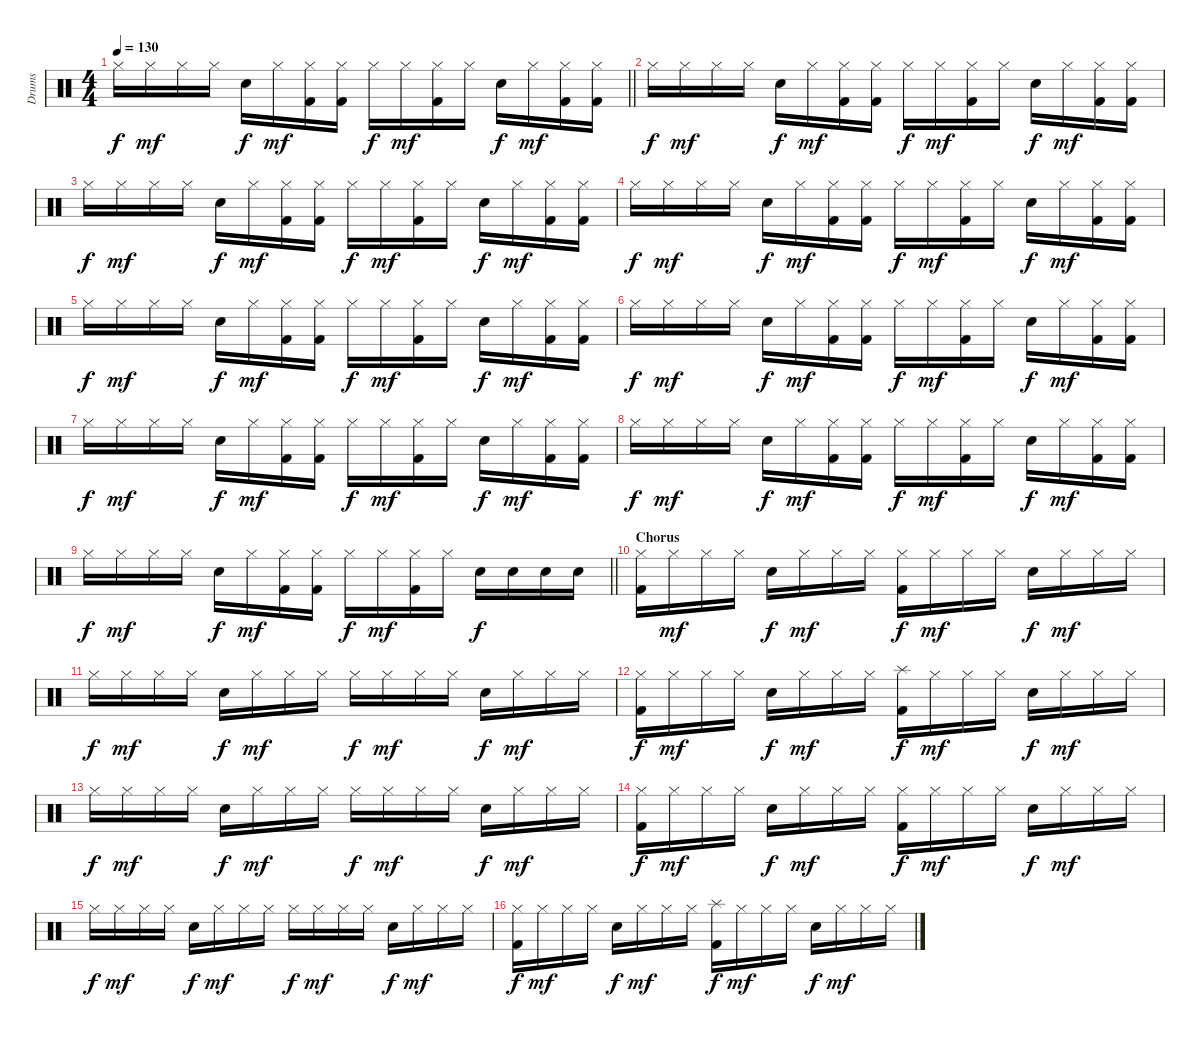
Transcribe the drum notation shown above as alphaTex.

\track ("Drums" "Drums") {instrument percussion}
\staff {score}
\articulation defaults
\ts (4 4)
\tempo 130
\clef neutral
\barLineRight lightlight
\ks c "Hi-Hat (closed)".16{dy f} "Hi-Hat (closed)".16{dy mf} "Hi-Hat (closed)".16 "Hi-Hat (closed)".16 "Snare (hit) 2".16{dy f} "Hi-Hat (closed)".16{dy mf}
("Hi-Hat (closed)" "Kick (hit) 2").16 ("Hi-Hat (closed)" "Kick (hit) 2").16 "Hi-Hat (closed)".16{dy f} "Hi-Hat (closed)".16{dy mf} ("Hi-Hat (closed)" "Kick (hit) 2").16 "Hi-Hat (closed)".16 "Snare (hit) 2".16{dy f} "Hi-Hat (closed)".16{dy mf} ("Hi-Hat (closed)" "Kick (hit) 2").16 ("Hi-Hat (closed)" "Kick (hit) 2").16 |
"Hi-Hat (closed)".16{dy f} "Hi-Hat (closed)".16{dy mf} "Hi-Hat (closed)".16 "Hi-Hat (closed)".16 "Snare (hit) 2".16{dy f} "Hi-Hat (closed)".16{dy mf} ("Hi-Hat (closed)" "Kick (hit) 2").16 ("Hi-Hat (closed)" "Kick (hit) 2").16 "Hi-Hat (closed)".16{dy f} "Hi-Hat (closed)".16{dy mf} ("Hi-Hat (closed)" "Kick (hit) 2").16 "Hi-Hat (closed)".16 "Snare (hit) 2".16{dy f} "Hi-Hat (closed)".16{dy mf} ("Hi-Hat (closed)" "Kick (hit) 2").16 ("Hi-Hat (closed)" "Kick (hit) 2").16 |
"Hi-Hat (closed)".16{dy f} "Hi-Hat (closed)".16{dy mf} "Hi-Hat (closed)".16 "Hi-Hat (closed)".16 "Snare (hit) 2".16{dy f} "Hi-Hat (closed)".16{dy mf} ("Hi-Hat (closed)" "Kick (hit) 2").16 ("Hi-Hat (closed)" "Kick (hit) 2").16 "Hi-Hat (closed)".16{dy f} "Hi-Hat (closed)".16{dy mf} ("Hi-Hat (closed)" "Kick (hit) 2").16 "Hi-Hat (closed)".16 "Snare (hit) 2".16{dy f} "Hi-Hat (closed)".16{dy mf} ("Hi-Hat (closed)" "Kick (hit) 2").16 ("Hi-Hat (closed)" "Kick (hit) 2").16 |
"Hi-Hat (closed)".16{dy f} "Hi-Hat (closed)".16{dy mf} "Hi-Hat (closed)".16 "Hi-Hat (closed)".16 "Snare (hit) 2".16{dy f} "Hi-Hat (closed)".16{dy mf} ("Hi-Hat (closed)" "Kick (hit) 2").16 ("Hi-Hat (closed)" "Kick (hit) 2").16 "Hi-Hat (closed)".16{dy f} "Hi-Hat (closed)".16{dy mf} ("Hi-Hat (closed)" "Kick (hit) 2").16 "Hi-Hat (closed)".16 "Snare (hit) 2".16{dy f} "Hi-Hat (closed)".16{dy mf} ("Hi-Hat (closed)" "Kick (hit) 2").16 ("Hi-Hat (closed)" "Kick (hit) 2").16 |
"Hi-Hat (closed)".16{dy f} "Hi-Hat (closed)".16{dy mf} "Hi-Hat (closed)".16 "Hi-Hat (closed)".16 "Snare (hit) 2".16{dy f} "Hi-Hat (closed)".16{dy mf} ("Hi-Hat (closed)" "Kick (hit) 2").16 ("Hi-Hat (closed)" "Kick (hit) 2").16 "Hi-Hat (closed)".16{dy f} "Hi-Hat (closed)".16{dy mf} ("Hi-Hat (closed)" "Kick (hit) 2").16 "Hi-Hat (closed)".16 "Snare (hit) 2".16{dy f} "Hi-Hat (closed)".16{dy mf} ("Hi-Hat (closed)" "Kick (hit) 2").16 ("Hi-Hat (closed)" "Kick (hit) 2").16 |
"Hi-Hat (closed)".16{dy f} "Hi-Hat (closed)".16{dy mf} "Hi-Hat (closed)".16 "Hi-Hat (closed)".16 "Snare (hit) 2".16{dy f} "Hi-Hat (closed)".16{dy mf} ("Hi-Hat (closed)" "Kick (hit) 2").16 ("Hi-Hat (closed)" "Kick (hit) 2").16 "Hi-Hat (closed)".16{dy f} "Hi-Hat (closed)".16{dy mf} ("Hi-Hat (closed)" "Kick (hit) 2").16 "Hi-Hat (closed)".16 "Snare (hit) 2".16{dy f} "Hi-Hat (closed)".16{dy mf} ("Hi-Hat (closed)" "Kick (hit) 2").16 ("Hi-Hat (closed)" "Kick (hit) 2").16 |
"Hi-Hat (closed)".16{dy f} "Hi-Hat (closed)".16{dy mf} "Hi-Hat (closed)".16 "Hi-Hat (closed)".16 "Snare (hit) 2".16{dy f} "Hi-Hat (closed)".16{dy mf} ("Hi-Hat (closed)" "Kick (hit) 2").16 ("Hi-Hat (closed)" "Kick (hit) 2").16 "Hi-Hat (closed)".16{dy f} "Hi-Hat (closed)".16{dy mf} ("Hi-Hat (closed)" "Kick (hit) 2").16 "Hi-Hat (closed)".16 "Snare (hit) 2".16{dy f} "Hi-Hat (closed)".16{dy mf} ("Hi-Hat (closed)" "Kick (hit) 2").16 ("Hi-Hat (closed)" "Kick (hit) 2").16 |
"Hi-Hat (closed)".16{dy f} "Hi-Hat (closed)".16{dy mf} "Hi-Hat (closed)".16 "Hi-Hat (closed)".16 "Snare (hit) 2".16{dy f} "Hi-Hat (closed)".16{dy mf} ("Hi-Hat (closed)" "Kick (hit) 2").16 ("Hi-Hat (closed)" "Kick (hit) 2").16 "Hi-Hat (closed)".16{dy f} "Hi-Hat (closed)".16{dy mf} ("Hi-Hat (closed)" "Kick (hit) 2").16 "Hi-Hat (closed)".16 "Snare (hit) 2".16{dy f} "Hi-Hat (closed)".16{dy mf} ("Hi-Hat (closed)" "Kick (hit) 2").16 ("Hi-Hat (closed)" "Kick (hit) 2").16 |
\barLineRight lightlight "Hi-Hat (closed)".16{dy f} "Hi-Hat (closed)".16{dy mf} "Hi-Hat (closed)".16 "Hi-Hat (closed)".16 "Snare (hit) 2".16{dy f} "Hi-Hat (closed)".16{dy mf}
("Hi-Hat (closed)" "Kick (hit) 2").16 ("Hi-Hat (closed)" "Kick (hit) 2").16 "Hi-Hat (closed)".16{dy f} "Hi-Hat (closed)".16{dy mf} ("Hi-Hat (closed)" "Kick (hit) 2").16 "Hi-Hat (closed)".16 "Snare (hit) 2".16{dy f} "Snare (hit) 2".16 "Snare (hit) 2".16 "Snare (hit) 2".16 |
\section ("" "Chorus")
("Hi-Hat (closed)" "Kick (hit) 2").16 "Hi-Hat (closed)".16{dy mf} "Hi-Hat (closed)".16 "Hi-Hat (closed)".16 "Snare (hit) 2".16{dy f} "Hi-Hat (closed)".16{dy mf} "Hi-Hat (closed)".16 "Hi-Hat (closed)".16 ("Hi-Hat (closed)" "Kick (hit) 2").16{dy f} "Hi-Hat (closed)".16{dy mf} "Hi-Hat (closed)".16 "Hi-Hat (closed)".16 "Snare (hit) 2".16{dy f} "Hi-Hat (closed)".16{dy mf} "Hi-Hat (closed)".16 "Hi-Hat (closed)".16 |
"Hi-Hat (closed)".16{dy f} "Hi-Hat (closed)".16{dy mf} "Hi-Hat (closed)".16 "Hi-Hat (closed)".16 "Snare (hit) 2".16{dy f} "Hi-Hat (closed)".16{dy mf} "Hi-Hat (closed)".16 "Hi-Hat (closed)".16 "Hi-Hat (closed)".16{dy f} "Hi-Hat (closed)".16{dy mf} "Hi-Hat (closed)".16 "Hi-Hat (closed)".16 "Snare (hit) 2".16{dy f} "Hi-Hat (closed)".16{dy mf} "Hi-Hat (closed)".16 "Hi-Hat (closed)".16 |
("Hi-Hat (closed)" "Kick (hit) 2").16{dy f} "Hi-Hat (closed)".16{dy mf} "Hi-Hat (closed)".16 "Hi-Hat (closed)".16 "Snare (hit) 2".16{dy f} "Hi-Hat (closed)".16{dy mf} "Hi-Hat (closed)".16 "Hi-Hat (closed)".16 ("Splash (hit)" "Kick (hit) 2").16{dy f} "Hi-Hat (closed)".16{dy mf} "Hi-Hat (closed)".16 "Hi-Hat (closed)".16 "Snare (hit) 2".16{dy f} "Hi-Hat (closed)".16{dy mf} "Hi-Hat (closed)".16 "Hi-Hat (closed)".16 |
"Hi-Hat (closed)".16{dy f} "Hi-Hat (closed)".16{dy mf} "Hi-Hat (closed)".16 "Hi-Hat (closed)".16 "Snare (hit) 2".16{dy f} "Hi-Hat (closed)".16{dy mf} "Hi-Hat (closed)".16 "Hi-Hat (closed)".16 "Hi-Hat (closed)".16{dy f} "Hi-Hat (closed)".16{dy mf} "Hi-Hat (closed)".16 "Hi-Hat (closed)".16 "Snare (hit) 2".16{dy f} "Hi-Hat (closed)".16{dy mf} "Hi-Hat (closed)".16 "Hi-Hat (closed)".16 |
("Hi-Hat (closed)" "Kick (hit) 2").16{dy f} "Hi-Hat (closed)".16{dy mf} "Hi-Hat (closed)".16 "Hi-Hat (closed)".16 "Snare (hit) 2".16{dy f} "Hi-Hat (closed)".16{dy mf} "Hi-Hat (closed)".16 "Hi-Hat (closed)".16 ("Hi-Hat (closed)" "Kick (hit) 2").16{dy f} "Hi-Hat (closed)".16{dy mf} "Hi-Hat (closed)".16 "Hi-Hat (closed)".16 "Snare (hit) 2".16{dy f} "Hi-Hat (closed)".16{dy mf} "Hi-Hat (closed)".16 "Hi-Hat (closed)".16 |
"Hi-Hat (closed)".16{dy f} "Hi-Hat (closed)".16{dy mf} "Hi-Hat (closed)".16 "Hi-Hat (closed)".16 "Snare (hit) 2".16{dy f} "Hi-Hat (closed)".16{dy mf} "Hi-Hat (closed)".16 "Hi-Hat (closed)".16 "Hi-Hat (closed)".16{dy f} "Hi-Hat (closed)".16{dy mf} "Hi-Hat (closed)".16 "Hi-Hat (closed)".16 "Snare (hit) 2".16{dy f} "Hi-Hat (closed)".16{dy mf} "Hi-Hat (closed)".16 "Hi-Hat (closed)".16 |
("Hi-Hat (closed)" "Kick (hit) 2").16{dy f} "Hi-Hat (closed)".16{dy mf} "Hi-Hat (closed)".16 "Hi-Hat (closed)".16 "Snare (hit) 2".16{dy f} "Hi-Hat (closed)".16{dy mf} "Hi-Hat (closed)".16 "Hi-Hat (closed)".16 ("Splash (hit)" "Kick (hit) 2").16{dy f} "Hi-Hat (closed)".16{dy mf} "Hi-Hat (closed)".16 "Hi-Hat (closed)".16 "Snare (hit) 2".16{dy f} "Hi-Hat (closed)".16{dy mf} "Hi-Hat (closed)".16 "Hi-Hat (closed)".16
